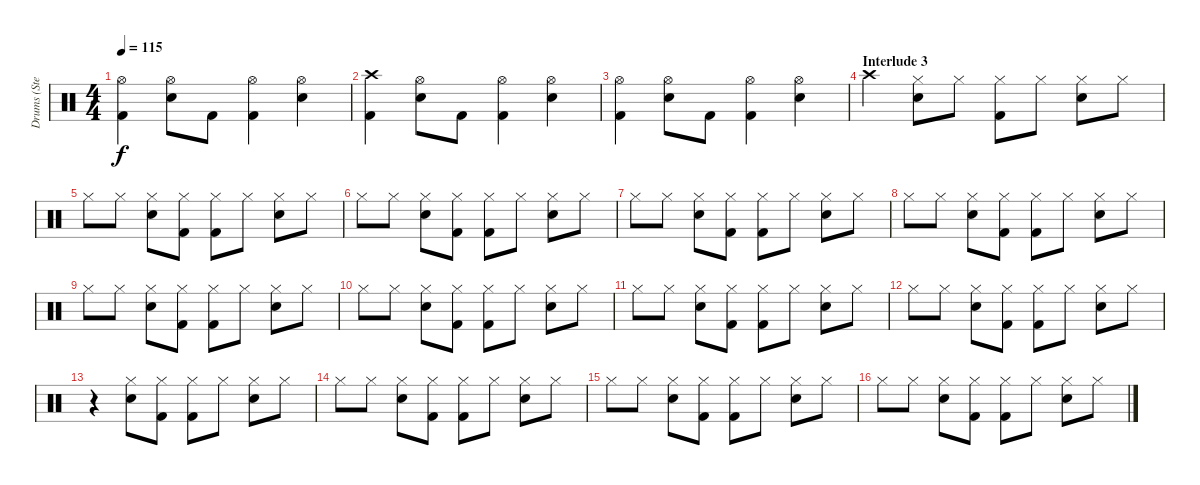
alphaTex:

\track ("Drums (Stewart)           " "Drums (Ste") {instrument percussion}
\staff {score}
\articulation defaults
\ts (4 4)
\tempo 115
\clef neutral
\ks c
("Hi-Hat (open)" "Kick (hit) 2").4{dy f} ("Hi-Hat (open)" "Snare (hit) 2").8 "Kick (hit) 2".8 ("Hi-Hat (open)" "Kick (hit) 2").4 ("Hi-Hat (open)" "Snare (hit) 2").4 |
("Crash high (hit)" "Kick (hit) 2").4 ("Hi-Hat (open)" "Snare (hit) 2").8 "Kick (hit) 2".8 ("Hi-Hat (open)" "Kick (hit) 2").4 ("Hi-Hat (open)" "Snare (hit) 2").4 |
("Hi-Hat (open)" "Kick (hit) 2").4 ("Hi-Hat (open)" "Snare (hit) 2").8 "Kick (hit) 2".8 ("Hi-Hat (open)" "Kick (hit) 2").4 ("Hi-Hat (open)" "Snare (hit) 2").4 |
\section ("" "Interlude 3")
"Crash high (hit)".4 ("Hi-Hat (closed)" "Snare (hit) 2").8 "Hi-Hat (closed)".8 ("Hi-Hat (closed)" "Kick (hit) 2").8 "Hi-Hat (closed)".8 ("Hi-Hat (closed)" "Snare (hit) 2").8 "Hi-Hat (closed)".8 |
"Hi-Hat (closed)".8 "Hi-Hat (closed)".8 ("Hi-Hat (closed)" "Snare (hit) 2").8 ("Hi-Hat (closed)" "Kick (hit) 2").8 ("Hi-Hat (closed)" "Kick (hit) 2").8 "Hi-Hat (closed)".8 ("Hi-Hat (closed)" "Snare (hit) 2").8 "Hi-Hat (closed)".8 |
"Hi-Hat (closed)".8 "Hi-Hat (closed)".8 ("Hi-Hat (closed)" "Snare (hit) 2").8 ("Hi-Hat (closed)" "Kick (hit) 2").8 ("Hi-Hat (closed)" "Kick (hit) 2").8 "Hi-Hat (closed)".8 ("Hi-Hat (closed)" "Snare (hit) 2").8 "Hi-Hat (closed)".8 |
"Hi-Hat (closed)".8 "Hi-Hat (closed)".8 ("Hi-Hat (closed)" "Snare (hit) 2").8 ("Hi-Hat (closed)" "Kick (hit) 2").8 ("Hi-Hat (closed)" "Kick (hit) 2").8 "Hi-Hat (closed)".8 ("Hi-Hat (closed)" "Snare (hit) 2").8 "Hi-Hat (closed)".8 |
"Hi-Hat (closed)".8 "Hi-Hat (closed)".8 ("Hi-Hat (closed)" "Snare (hit) 2").8 ("Hi-Hat (closed)" "Kick (hit) 2").8 ("Hi-Hat (closed)" "Kick (hit) 2").8 "Hi-Hat (closed)".8 ("Hi-Hat (closed)" "Snare (hit) 2").8 "Hi-Hat (closed)".8 |
"Hi-Hat (closed)".8 "Hi-Hat (closed)".8 ("Hi-Hat (closed)" "Snare (hit) 2").8 ("Hi-Hat (closed)" "Kick (hit) 2").8 ("Hi-Hat (closed)" "Kick (hit) 2").8 "Hi-Hat (closed)".8 ("Hi-Hat (closed)" "Snare (hit) 2").8 "Hi-Hat (closed)".8 |
"Hi-Hat (closed)".8 "Hi-Hat (closed)".8 ("Hi-Hat (closed)" "Snare (hit) 2").8 ("Hi-Hat (closed)" "Kick (hit) 2").8 ("Hi-Hat (closed)" "Kick (hit) 2").8 "Hi-Hat (closed)".8 ("Hi-Hat (closed)" "Snare (hit) 2").8 "Hi-Hat (closed)".8 |
"Hi-Hat (closed)".8 "Hi-Hat (closed)".8 ("Hi-Hat (closed)" "Snare (hit) 2").8 ("Hi-Hat (closed)" "Kick (hit) 2").8 ("Hi-Hat (closed)" "Kick (hit) 2").8 "Hi-Hat (closed)".8 ("Hi-Hat (closed)" "Snare (hit) 2").8 "Hi-Hat (closed)".8 |
"Hi-Hat (closed)".8 "Hi-Hat (closed)".8 ("Hi-Hat (closed)" "Snare (hit) 2").8 ("Hi-Hat (closed)" "Kick (hit) 2").8 ("Hi-Hat (closed)" "Kick (hit) 2").8 "Hi-Hat (closed)".8 ("Hi-Hat (closed)" "Snare (hit) 2").8 "Hi-Hat (closed)".8 |
r.4 ("Hi-Hat (closed)" "Snare (hit) 2").8 ("Hi-Hat (closed)" "Kick (hit) 2").8 ("Hi-Hat (closed)" "Kick (hit) 2").8 "Hi-Hat (closed)".8 ("Hi-Hat (closed)" "Snare (hit) 2").8 "Hi-Hat (closed)".8 |
"Hi-Hat (closed)".8 "Hi-Hat (closed)".8 ("Hi-Hat (closed)" "Snare (hit) 2").8 ("Hi-Hat (closed)" "Kick (hit) 2").8 ("Hi-Hat (closed)" "Kick (hit) 2").8 "Hi-Hat (closed)".8 ("Hi-Hat (closed)" "Snare (hit) 2").8 "Hi-Hat (closed)".8 |
"Hi-Hat (closed)".8 "Hi-Hat (closed)".8 ("Hi-Hat (closed)" "Snare (hit) 2").8 ("Hi-Hat (closed)" "Kick (hit) 2").8 ("Hi-Hat (closed)" "Kick (hit) 2").8 "Hi-Hat (closed)".8 ("Hi-Hat (closed)" "Snare (hit) 2").8 "Hi-Hat (closed)".8 |
"Hi-Hat (closed)".8 "Hi-Hat (closed)".8 ("Hi-Hat (closed)" "Snare (hit) 2").8 ("Hi-Hat (closed)" "Kick (hit) 2").8 ("Hi-Hat (closed)" "Kick (hit) 2").8 "Hi-Hat (closed)".8 ("Hi-Hat (closed)" "Snare (hit) 2").8 "Hi-Hat (closed)".8
